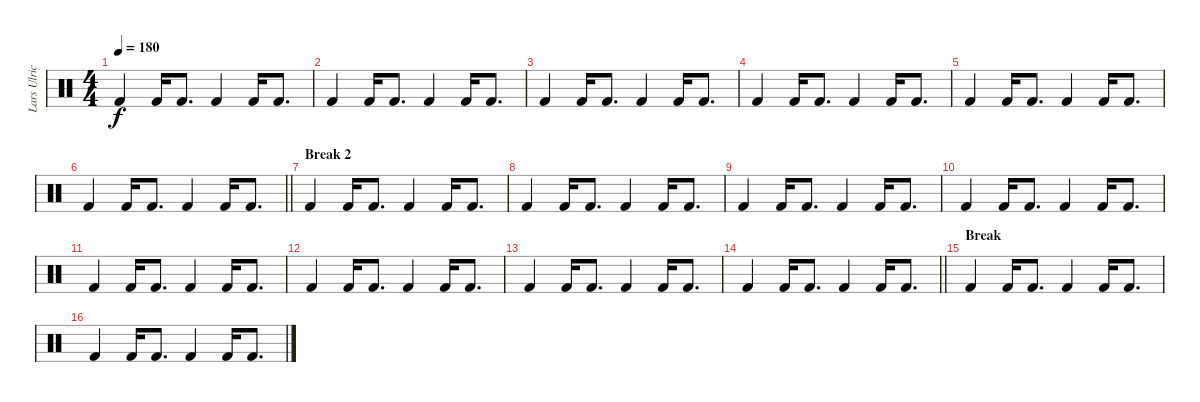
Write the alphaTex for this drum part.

\track ("Lars Ulrich" "Lars Ulric") {instrument percussion}
\staff {score}
\articulation defaults
\ts (4 4)
\tempo 180
\clef neutral
\ks c "Kick (hit) 2".4{dy f} "Kick (hit) 2".16 "Kick (hit) 2".8{d} "Kick (hit) 2".4 "Kick (hit) 2".16 "Kick (hit) 2".8{d}
|
"Kick (hit) 2".4 "Kick (hit) 2".16 "Kick (hit) 2".8{d} "Kick (hit) 2".4 "Kick (hit) 2".16 "Kick (hit) 2".8{d} |
"Kick (hit) 2".4 "Kick (hit) 2".16 "Kick (hit) 2".8{d} "Kick (hit) 2".4 "Kick (hit) 2".16 "Kick (hit) 2".8{d} |
"Kick (hit) 2".4 "Kick (hit) 2".16 "Kick (hit) 2".8{d} "Kick (hit) 2".4 "Kick (hit) 2".16 "Kick (hit) 2".8{d} |
"Kick (hit) 2".4 "Kick (hit) 2".16 "Kick (hit) 2".8{d} "Kick (hit) 2".4 "Kick (hit) 2".16 "Kick (hit) 2".8{d} |
\barLineRight lightlight "Kick (hit) 2".4 "Kick (hit) 2".16 "Kick (hit) 2".8{d} "Kick (hit) 2".4 "Kick (hit) 2".16 "Kick (hit) 2".8{d}
|
\section ("" "Break 2")
"Kick (hit) 2".4 "Kick (hit) 2".16 "Kick (hit) 2".8{d} "Kick (hit) 2".4 "Kick (hit) 2".16 "Kick (hit) 2".8{d} |
"Kick (hit) 2".4 "Kick (hit) 2".16 "Kick (hit) 2".8{d} "Kick (hit) 2".4 "Kick (hit) 2".16 "Kick (hit) 2".8{d} |
"Kick (hit) 2".4 "Kick (hit) 2".16 "Kick (hit) 2".8{d} "Kick (hit) 2".4 "Kick (hit) 2".16 "Kick (hit) 2".8{d} |
"Kick (hit) 2".4 "Kick (hit) 2".16 "Kick (hit) 2".8{d} "Kick (hit) 2".4 "Kick (hit) 2".16 "Kick (hit) 2".8{d} |
"Kick (hit) 2".4 "Kick (hit) 2".16 "Kick (hit) 2".8{d} "Kick (hit) 2".4 "Kick (hit) 2".16 "Kick (hit) 2".8{d} |
"Kick (hit) 2".4 "Kick (hit) 2".16 "Kick (hit) 2".8{d} "Kick (hit) 2".4 "Kick (hit) 2".16 "Kick (hit) 2".8{d} |
"Kick (hit) 2".4 "Kick (hit) 2".16 "Kick (hit) 2".8{d} "Kick (hit) 2".4 "Kick (hit) 2".16 "Kick (hit) 2".8{d} |
\barLineRight lightlight "Kick (hit) 2".4 "Kick (hit) 2".16 "Kick (hit) 2".8{d} "Kick (hit) 2".4 "Kick (hit) 2".16 "Kick (hit) 2".8{d}
|
\section ("" "Break")
"Kick (hit) 2".4 "Kick (hit) 2".16 "Kick (hit) 2".8{d} "Kick (hit) 2".4 "Kick (hit) 2".16 "Kick (hit) 2".8{d} |
"Kick (hit) 2".4 "Kick (hit) 2".16 "Kick (hit) 2".8{d} "Kick (hit) 2".4 "Kick (hit) 2".16 "Kick (hit) 2".8{d}
